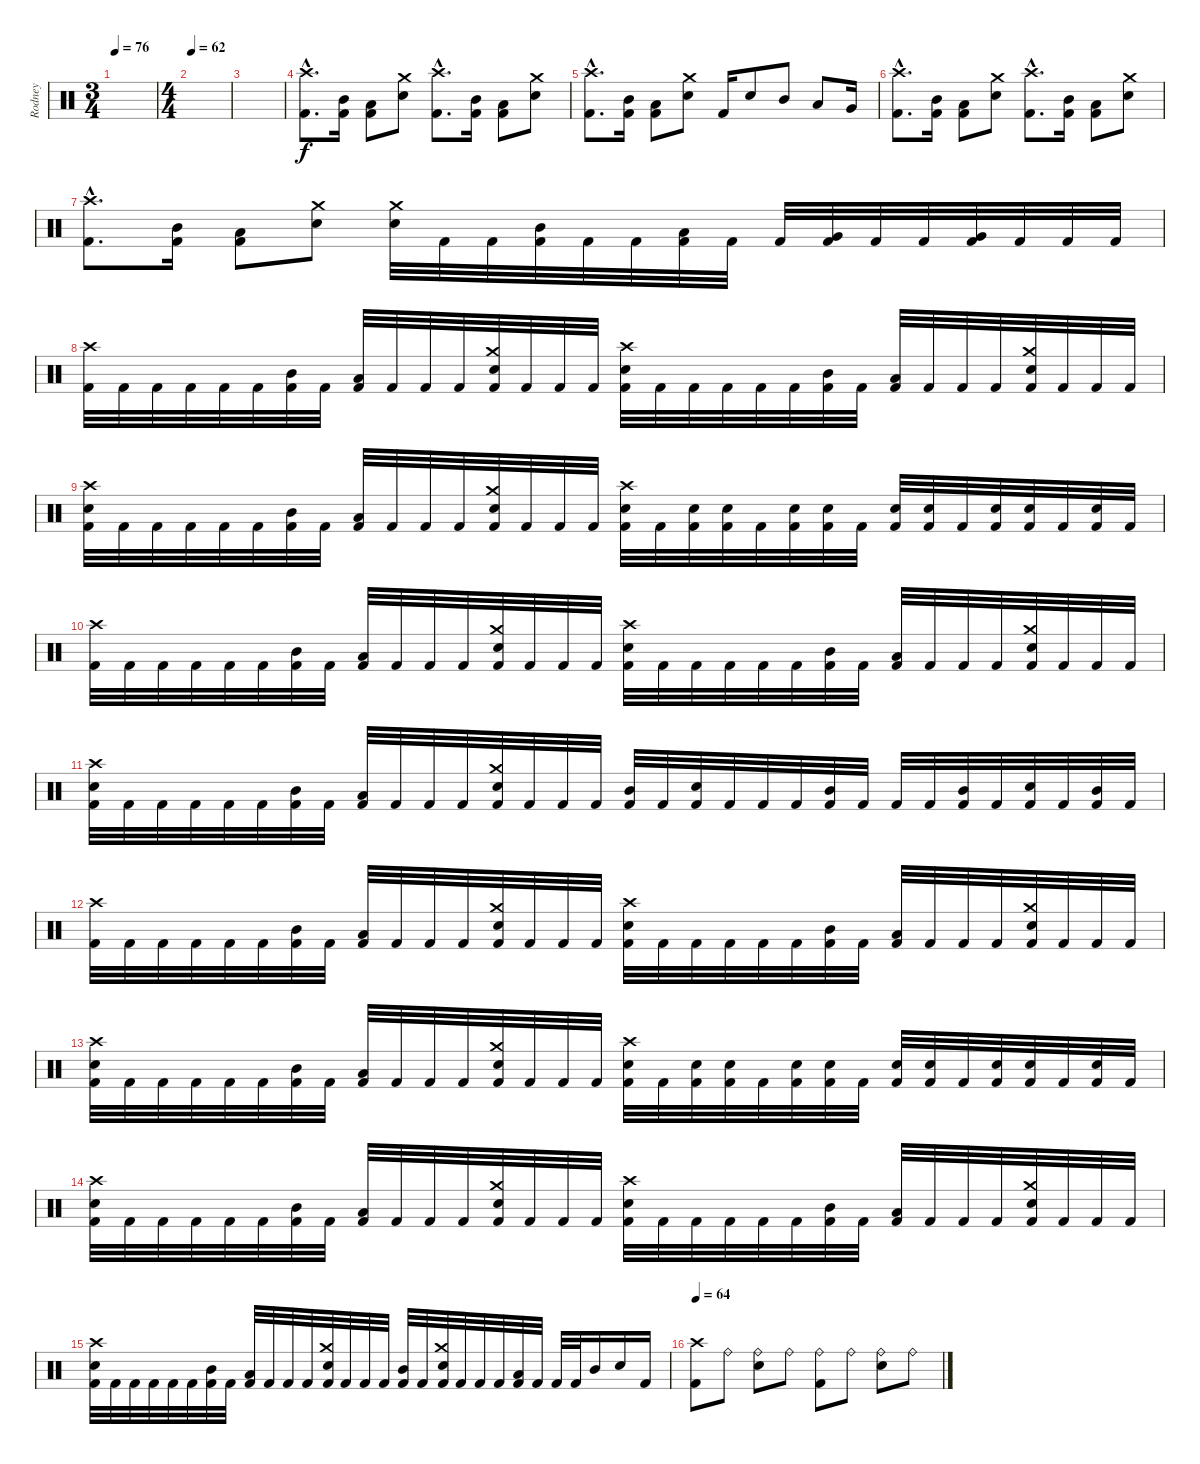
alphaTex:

\track ("Rodney" "Rodney") {instrument percussion}
\staff {score}
\articulation defaults
\ts (3 4)
\tempo 76
\clef neutral
\ks c
|
\ts (4 4)
\tempo 62
|
|
("Crash high (hit)"{hac} "Kick (hit) 2"{hac}).8{d} ("Mid Tom (hit)" "Kick (hit) 2").16 ("Low Tom (hit)" "Kick (hit) 2").8 ("Crash medium (hit)" "Snare (hit) 2").8 ("Crash high (hit)"{hac} "Kick (hit) 2"{hac}).8{d} ("Mid Tom (hit)" "Kick (hit) 2").16 ("Low Tom (hit)" "Kick (hit) 2").8 ("Crash medium (hit)" "Snare (hit) 2").8 |
("Crash high (hit)"{hac} "Kick (hit) 2"{hac}).8{d} ("Mid Tom (hit)" "Kick (hit) 2").16 ("Low Tom (hit)" "Kick (hit) 2").8 ("Crash medium (hit)" "Snare (hit) 2").8 "Kick (hit) 2".16 "Snare (hit) 2".8 "Mid Tom (hit)".8 "Low Tom (hit)".8 "Very Low Tom (hit)".16 |
("Crash high (hit)"{hac} "Kick (hit) 2"{hac}).8{d} ("Mid Tom (hit)" "Kick (hit) 2").16 ("Low Tom (hit)" "Kick (hit) 2").8 ("Crash medium (hit)" "Snare (hit) 2").8 ("Crash high (hit)"{hac} "Kick (hit) 2"{hac}).8{d} ("Mid Tom (hit)" "Kick (hit) 2").16 ("Low Tom (hit)" "Kick (hit) 2").8 ("Crash medium (hit)" "Snare (hit) 2").8 |
("Crash high (hit)"{hac} "Kick (hit) 2"{hac}).8{d} ("Mid Tom (hit)" "Kick (hit) 2").16 ("Low Tom (hit)" "Kick (hit) 2").8 ("Crash medium (hit)" "Snare (hit) 2").8 ("Crash medium (hit)" "Snare (hit) 2").32 "Kick (hit) 2".32 "Kick (hit) 2".32 ("Mid Tom (hit)" "Kick (hit) 2").32 "Kick (hit) 2".32 "Kick (hit) 2".32 ("Low Tom (hit)" "Kick (hit) 2").32 "Kick (hit) 2".32 "Kick (hit) 2".32 ("Very Low Tom (hit)" "Kick (hit) 2").32 "Kick (hit) 2".32 "Kick (hit) 2".32 ("Very Low Tom (hit)" "Kick (hit) 2").32 "Kick (hit) 2".32 "Kick (hit) 2".32 "Kick (hit) 2".32 |
("Crash high (hit)" "Kick (hit) 2").32 "Kick (hit) 2".32 "Kick (hit) 2".32 "Kick (hit) 2".32 "Kick (hit) 2".32 "Kick (hit) 2".32 ("Mid Tom (hit)" "Kick (hit) 2").32 "Kick (hit) 2".32 ("Low Tom (hit)" "Kick (hit) 2").32 "Kick (hit) 2".32 "Kick (hit) 2".32 "Kick (hit) 2".32 ("Crash medium (hit)" "Snare (hit) 2" "Kick (hit) 2").32 "Kick (hit) 2".32 "Kick (hit) 2".32 "Kick (hit) 2".32 ("Crash high (hit)" "Snare (hit) 2" "Kick (hit) 2").32 "Kick (hit) 2".32 "Kick (hit) 2".32 "Kick (hit) 2".32 "Kick (hit) 2".32 "Kick (hit) 2".32 ("Mid Tom (hit)" "Kick (hit) 2").32 "Kick (hit) 2".32 ("Low Tom (hit)" "Kick (hit) 2").32 "Kick (hit) 2".32 "Kick (hit) 2".32 "Kick (hit) 2".32 ("Crash medium (hit)" "Snare (hit) 2" "Kick (hit) 2").32 "Kick (hit) 2".32 "Kick (hit) 2".32 "Kick (hit) 2".32 |
("Crash high (hit)" "Snare (hit) 2" "Kick (hit) 2").32 "Kick (hit) 2".32 "Kick (hit) 2".32 "Kick (hit) 2".32 "Kick (hit) 2".32 "Kick (hit) 2".32 ("Mid Tom (hit)" "Kick (hit) 2").32 "Kick (hit) 2".32 ("Low Tom (hit)" "Kick (hit) 2").32 "Kick (hit) 2".32 "Kick (hit) 2".32 "Kick (hit) 2".32 ("Crash medium (hit)" "Snare (hit) 2" "Kick (hit) 2").32 "Kick (hit) 2".32 "Kick (hit) 2".32 "Kick (hit) 2".32 ("Crash high (hit)" "Snare (hit) 2" "Kick (hit) 2").32 "Kick (hit) 2".32 ("Snare (hit) 2" "Kick (hit) 2").32 ("Snare (hit) 2" "Kick (hit) 2").32 "Kick (hit) 2".32 ("Snare (hit) 2" "Kick (hit) 2").32 ("Snare (hit) 2" "Kick (hit) 2").32 "Kick (hit) 2".32 ("Snare (hit) 2" "Kick (hit) 2").32 ("Snare (hit) 2" "Kick (hit) 2").32 "Kick (hit) 2".32 ("Snare (hit) 2" "Kick (hit) 2").32 ("Snare (hit) 2" "Kick (hit) 2").32 "Kick (hit) 2".32 ("Snare (hit) 2" "Kick (hit) 2").32 "Kick (hit) 2".32 |
("Crash high (hit)" "Kick (hit) 2").32 "Kick (hit) 2".32 "Kick (hit) 2".32 "Kick (hit) 2".32 "Kick (hit) 2".32 "Kick (hit) 2".32 ("Mid Tom (hit)" "Kick (hit) 2").32 "Kick (hit) 2".32 ("Low Tom (hit)" "Kick (hit) 2").32 "Kick (hit) 2".32 "Kick (hit) 2".32 "Kick (hit) 2".32 ("Crash medium (hit)" "Snare (hit) 2" "Kick (hit) 2").32 "Kick (hit) 2".32 "Kick (hit) 2".32 "Kick (hit) 2".32 ("Crash high (hit)" "Snare (hit) 2" "Kick (hit) 2").32 "Kick (hit) 2".32 "Kick (hit) 2".32 "Kick (hit) 2".32 "Kick (hit) 2".32 "Kick (hit) 2".32 ("Mid Tom (hit)" "Kick (hit) 2").32 "Kick (hit) 2".32 ("Low Tom (hit)" "Kick (hit) 2").32 "Kick (hit) 2".32 "Kick (hit) 2".32 "Kick (hit) 2".32 ("Crash medium (hit)" "Snare (hit) 2" "Kick (hit) 2").32 "Kick (hit) 2".32 "Kick (hit) 2".32 "Kick (hit) 2".32 |
("Crash high (hit)" "Snare (hit) 2" "Kick (hit) 2").32 "Kick (hit) 2".32 "Kick (hit) 2".32 "Kick (hit) 2".32 "Kick (hit) 2".32 "Kick (hit) 2".32 ("Mid Tom (hit)" "Kick (hit) 2").32 "Kick (hit) 2".32 ("Low Tom (hit)" "Kick (hit) 2").32 "Kick (hit) 2".32 "Kick (hit) 2".32 "Kick (hit) 2".32 ("Crash medium (hit)" "Snare (hit) 2" "Kick (hit) 2").32 "Kick (hit) 2".32 "Kick (hit) 2".32 "Kick (hit) 2".32 ("Mid Tom (hit)" "Kick (hit) 2").32 "Kick (hit) 2".32 ("Snare (hit) 2" "Kick (hit) 2").32 "Kick (hit) 2".32 "Kick (hit) 2".32 "Kick (hit) 2".32 ("Mid Tom (hit)" "Kick (hit) 2").32 "Kick (hit) 2".32 "Kick (hit) 2".32 "Kick (hit) 2".32 ("Mid Tom (hit)" "Kick (hit) 2").32 "Kick (hit) 2".32 ("Snare (hit) 2" "Kick (hit) 2").32 "Kick (hit) 2".32 ("Mid Tom (hit)" "Kick (hit) 2").32 "Kick (hit) 2".32 |
("Crash high (hit)" "Kick (hit) 2").32 "Kick (hit) 2".32 "Kick (hit) 2".32 "Kick (hit) 2".32 "Kick (hit) 2".32 "Kick (hit) 2".32 ("Mid Tom (hit)" "Kick (hit) 2").32 "Kick (hit) 2".32 ("Low Tom (hit)" "Kick (hit) 2").32 "Kick (hit) 2".32 "Kick (hit) 2".32 "Kick (hit) 2".32 ("Crash medium (hit)" "Snare (hit) 2" "Kick (hit) 2").32 "Kick (hit) 2".32 "Kick (hit) 2".32 "Kick (hit) 2".32 ("Crash high (hit)" "Snare (hit) 2" "Kick (hit) 2").32 "Kick (hit) 2".32 "Kick (hit) 2".32 "Kick (hit) 2".32 "Kick (hit) 2".32 "Kick (hit) 2".32 ("Mid Tom (hit)" "Kick (hit) 2").32 "Kick (hit) 2".32 ("Low Tom (hit)" "Kick (hit) 2").32 "Kick (hit) 2".32 "Kick (hit) 2".32 "Kick (hit) 2".32 ("Crash medium (hit)" "Snare (hit) 2" "Kick (hit) 2").32 "Kick (hit) 2".32 "Kick (hit) 2".32 "Kick (hit) 2".32 |
("Crash high (hit)" "Snare (hit) 2" "Kick (hit) 2").32 "Kick (hit) 2".32 "Kick (hit) 2".32 "Kick (hit) 2".32 "Kick (hit) 2".32 "Kick (hit) 2".32 ("Mid Tom (hit)" "Kick (hit) 2").32 "Kick (hit) 2".32 ("Low Tom (hit)" "Kick (hit) 2").32 "Kick (hit) 2".32 "Kick (hit) 2".32 "Kick (hit) 2".32 ("Crash medium (hit)" "Snare (hit) 2" "Kick (hit) 2").32 "Kick (hit) 2".32 "Kick (hit) 2".32 "Kick (hit) 2".32 ("Crash high (hit)" "Snare (hit) 2" "Kick (hit) 2").32 "Kick (hit) 2".32 ("Snare (hit) 2" "Kick (hit) 2").32 ("Snare (hit) 2" "Kick (hit) 2").32 "Kick (hit) 2".32 ("Snare (hit) 2" "Kick (hit) 2").32 ("Snare (hit) 2" "Kick (hit) 2").32 "Kick (hit) 2".32 ("Snare (hit) 2" "Kick (hit) 2").32 ("Snare (hit) 2" "Kick (hit) 2").32 "Kick (hit) 2".32 ("Snare (hit) 2" "Kick (hit) 2").32 ("Snare (hit) 2" "Kick (hit) 2").32 "Kick (hit) 2".32 ("Snare (hit) 2" "Kick (hit) 2").32 "Kick (hit) 2".32 |
("Crash high (hit)" "Snare (hit) 2" "Kick (hit) 2").32 "Kick (hit) 2".32 "Kick (hit) 2".32 "Kick (hit) 2".32 "Kick (hit) 2".32 "Kick (hit) 2".32 ("Mid Tom (hit)" "Kick (hit) 2").32 "Kick (hit) 2".32 ("Low Tom (hit)" "Kick (hit) 2").32 "Kick (hit) 2".32 "Kick (hit) 2".32 "Kick (hit) 2".32 ("Crash medium (hit)" "Snare (hit) 2" "Kick (hit) 2").32 "Kick (hit) 2".32 "Kick (hit) 2".32 "Kick (hit) 2".32 ("Crash high (hit)" "Snare (hit) 2" "Kick (hit) 2").32 "Kick (hit) 2".32 "Kick (hit) 2".32 "Kick (hit) 2".32 "Kick (hit) 2".32 "Kick (hit) 2".32 ("Mid Tom (hit)" "Kick (hit) 2").32 "Kick (hit) 2".32 ("Low Tom (hit)" "Kick (hit) 2").32 "Kick (hit) 2".32 "Kick (hit) 2".32 "Kick (hit) 2".32 ("Crash medium (hit)" "Snare (hit) 2" "Kick (hit) 2").32 "Kick (hit) 2".32 "Kick (hit) 2".32 "Kick (hit) 2".32 |
("Crash high (hit)" "Snare (hit) 2" "Kick (hit) 2").32 "Kick (hit) 2".32 "Kick (hit) 2".32 "Kick (hit) 2".32 "Kick (hit) 2".32 "Kick (hit) 2".32 ("Mid Tom (hit)" "Kick (hit) 2").32 "Kick (hit) 2".32 ("Low Tom (hit)" "Kick (hit) 2").32 "Kick (hit) 2".32 "Kick (hit) 2".32 "Kick (hit) 2".32 ("Crash medium (hit)" "Snare (hit) 2" "Kick (hit) 2").32 "Kick (hit) 2".32 "Kick (hit) 2".32 "Kick (hit) 2".32 ("Mid Tom (hit)" "Kick (hit) 2").32 "Kick (hit) 2".32 ("Crash medium (hit)" "Snare (hit) 2" "Kick (hit) 2").32 "Kick (hit) 2".32 "Kick (hit) 2".32 "Kick (hit) 2".32 ("Low Tom (hit)" "Kick (hit) 2").32 "Kick (hit) 2".32 "Kick (hit) 2".32 "Kick (hit) 2".32 "Mid Tom (hit)".16 "Snare (hit) 2".16 "Kick (hit) 2".16 |
\tempo 64
("Crash high (hit)" "Kick (hit) 2").8 "Ride (bell)".8 ("Ride (bell)" "Snare (hit) 2").8 "Ride (bell)".8 ("Ride (bell)" "Kick (hit) 2").8 "Ride (bell)".8 ("Ride (bell)" "Snare (hit) 2").8 "Ride (bell)".8
